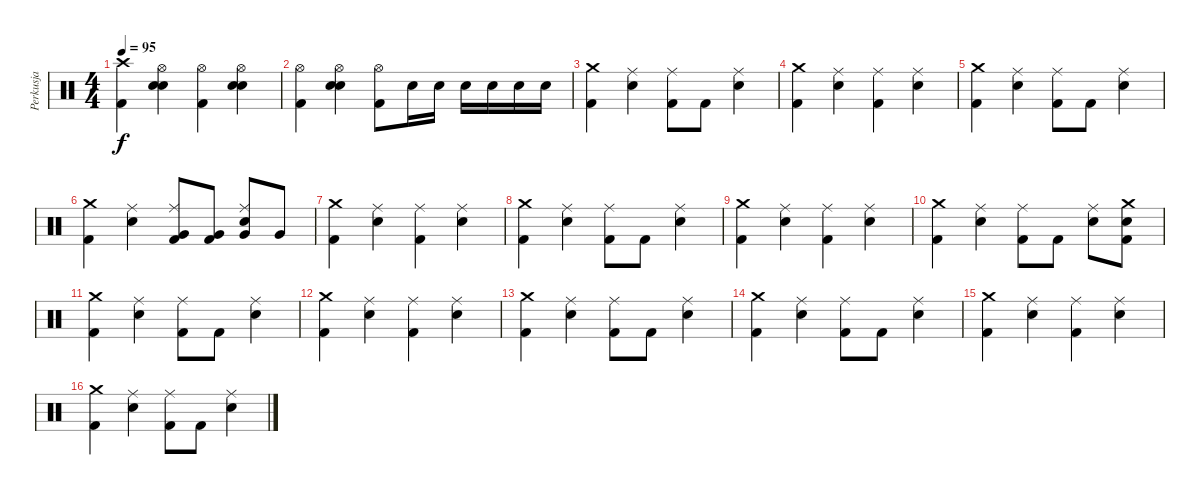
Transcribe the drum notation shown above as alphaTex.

\track ("Perkusja" "Perkusja") {instrument percussion}
\staff {score}
\articulation defaults
\ts (4 4)
\tempo 95
\clef neutral
\ks c
("Crash high (hit)" "Kick (hit) 2").4{dy f} ("Hi-Hat (open)" "Electric Snare (hit)" "Snare (hit) 2").4 ("Hi-Hat (open)" "Kick (hit) 2").4 ("Hi-Hat (open)" "Electric Snare (hit)" "Snare (hit) 2").4 |
("Hi-Hat (open)" "Kick (hit) 2").4 ("Hi-Hat (open)" "Electric Snare (hit)" "Snare (hit) 2").4 ("Hi-Hat (open)" "Kick (hit) 2").8 "Snare (hit) 2".16 "Snare (hit) 2".16 "Snare (hit) 2".16 "Snare (hit) 2".16 "Snare (hit) 2".16 "Snare (hit) 2".16 |
("Crash medium (hit)" "Kick (hit) 2").4 ("Ride (middle)" "Snare (hit) 2").4 ("Ride (middle)" "Kick (hit) 2").8 "Kick (hit) 2".8 ("Ride (middle)" "Snare (hit) 2").4 |
("Crash medium (hit)" "Kick (hit) 2").4 ("Ride (middle)" "Snare (hit) 2").4 ("Ride (middle)" "Kick (hit) 2").4 ("Ride (middle)" "Snare (hit) 2").4 |
("Crash medium (hit)" "Kick (hit) 2").4 ("Ride (middle)" "Snare (hit) 2").4 ("Ride (middle)" "Kick (hit) 2").8 "Kick (hit) 2".8 ("Ride (middle)" "Snare (hit) 2").4 |
("Crash medium (hit)" "Kick (hit) 2").4 ("Ride (middle)" "Snare (hit) 2").4 ("Ride (middle)" "Very Low Tom (hit)" "Kick (hit) 2").8 ("Very Low Tom (hit)" "Kick (hit) 2").8 ("Ride (middle)" "Very Low Tom (hit)" "Snare (hit) 2").8 "Very Low Tom (hit)".8 |
("Crash medium (hit)" "Kick (hit) 2").4 ("Ride (middle)" "Snare (hit) 2").4 ("Ride (middle)" "Kick (hit) 2").4 ("Ride (middle)" "Snare (hit) 2").4 |
("Crash medium (hit)" "Kick (hit) 2").4 ("Ride (middle)" "Snare (hit) 2").4 ("Ride (middle)" "Kick (hit) 2").8 "Kick (hit) 2".8 ("Ride (middle)" "Snare (hit) 2").4 |
("Crash medium (hit)" "Kick (hit) 2").4 ("Ride (middle)" "Snare (hit) 2").4 ("Ride (middle)" "Kick (hit) 2").4 ("Ride (middle)" "Snare (hit) 2").4 |
("Crash medium (hit)" "Kick (hit) 2").4 ("Ride (middle)" "Snare (hit) 2").4 ("Ride (middle)" "Kick (hit) 2").8 "Kick (hit) 2".8 ("Ride (middle)" "Snare (hit) 2").8 ("Crash medium (hit)" "Snare (hit) 2" "Kick (hit) 2").8 |
("Crash medium (hit)" "Kick (hit) 2").4 ("Ride (middle)" "Snare (hit) 2").4 ("Ride (middle)" "Kick (hit) 2").8 "Kick (hit) 2".8 ("Ride (middle)" "Snare (hit) 2").4 |
("Crash medium (hit)" "Kick (hit) 2").4 ("Ride (middle)" "Snare (hit) 2").4 ("Ride (middle)" "Kick (hit) 2").4 ("Ride (middle)" "Snare (hit) 2").4 |
("Crash medium (hit)" "Kick (hit) 2").4 ("Ride (middle)" "Snare (hit) 2").4 ("Ride (middle)" "Kick (hit) 2").8 "Kick (hit) 2".8 ("Ride (middle)" "Snare (hit) 2").4 |
("Crash medium (hit)" "Kick (hit) 2").4 ("Ride (middle)" "Snare (hit) 2").4 ("Ride (middle)" "Kick (hit) 2").8 "Kick (hit) 2".8 ("Ride (middle)" "Snare (hit) 2").4 |
("Crash medium (hit)" "Kick (hit) 2").4 ("Ride (middle)" "Snare (hit) 2").4 ("Ride (middle)" "Kick (hit) 2").4 ("Ride (middle)" "Snare (hit) 2").4 |
("Crash medium (hit)" "Kick (hit) 2").4 ("Ride (middle)" "Snare (hit) 2").4 ("Ride (middle)" "Kick (hit) 2").8 "Kick (hit) 2".8 ("Ride (middle)" "Snare (hit) 2").4
